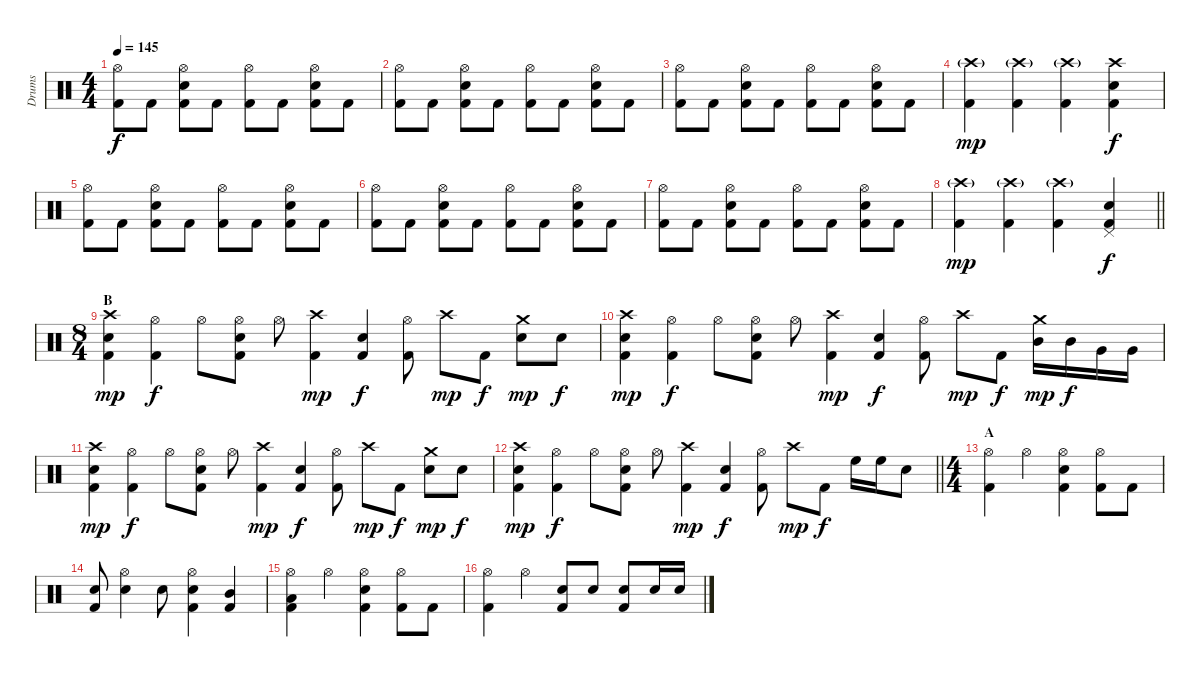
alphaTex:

\track ("Drums" "Drums") {instrument percussion}
\staff {score}
\articulation defaults
\ts (4 4)
\tempo 145
\clef neutral
\ks c
("Hi-Hat (open)" "Kick (hit) 2").8{dy f} "Kick (hit) 2".8 ("Snare (hit) 2" "Hi-Hat (open)" "Kick (hit) 2").8 "Kick (hit) 2".8 ("Hi-Hat (open)" "Kick (hit) 2").8 "Kick (hit) 2".8 ("Snare (hit) 2" "Hi-Hat (open)" "Kick (hit) 2").8 "Kick (hit) 2".8 |
("Hi-Hat (open)" "Kick (hit) 2").8 "Kick (hit) 2".8 ("Snare (hit) 2" "Hi-Hat (open)" "Kick (hit) 2").8 "Kick (hit) 2".8 ("Hi-Hat (open)" "Kick (hit) 2").8 "Kick (hit) 2".8 ("Snare (hit) 2" "Hi-Hat (open)" "Kick (hit) 2").8 "Kick (hit) 2".8 |
("Hi-Hat (open)" "Kick (hit) 2").8 "Kick (hit) 2".8 ("Snare (hit) 2" "Hi-Hat (open)" "Kick (hit) 2").8 "Kick (hit) 2".8 ("Hi-Hat (open)" "Kick (hit) 2").8 "Kick (hit) 2".8 ("Snare (hit) 2" "Hi-Hat (open)" "Kick (hit) 2").8 "Kick (hit) 2".8 |
("Crash high (hit)"{g} "Kick (hit) 2").4{dy mp} ("Crash high (hit)"{g} "Kick (hit) 2").4 ("Crash high (hit)"{g} "Kick (hit) 2").4 ("Snare (hit) 2" "Crash high (hit)" "Kick (hit) 2").4{dy f} |
("Hi-Hat (open)" "Kick (hit) 2").8 "Kick (hit) 2".8 ("Snare (hit) 2" "Hi-Hat (open)" "Kick (hit) 2").8 "Kick (hit) 2".8 ("Hi-Hat (open)" "Kick (hit) 2").8 "Kick (hit) 2".8 ("Snare (hit) 2" "Hi-Hat (open)" "Kick (hit) 2").8 "Kick (hit) 2".8 |
("Hi-Hat (open)" "Kick (hit) 2").8 "Kick (hit) 2".8 ("Snare (hit) 2" "Hi-Hat (open)" "Kick (hit) 2").8 "Kick (hit) 2".8 ("Hi-Hat (open)" "Kick (hit) 2").8 "Kick (hit) 2".8 ("Snare (hit) 2" "Hi-Hat (open)" "Kick (hit) 2").8 "Kick (hit) 2".8 |
("Hi-Hat (open)" "Kick (hit) 2").8 "Kick (hit) 2".8 ("Snare (hit) 2" "Hi-Hat (open)" "Kick (hit) 2").8 "Kick (hit) 2".8 ("Hi-Hat (open)" "Kick (hit) 2").8 "Kick (hit) 2".8 ("Snare (hit) 2" "Hi-Hat (open)" "Kick (hit) 2").8 "Kick (hit) 2".8 |
\barLineRight lightlight
("Crash high (hit)"{g} "Kick (hit) 2").4{dy mp} ("Crash high (hit)"{g} "Kick (hit) 2").4 ("Crash high (hit)"{g} "Kick (hit) 2").4 ("Snare (hit) 2" "Pedal Hi-Hat (hit)" "Kick (hit) 2").4{dy f} |
\ts (8 4)
\section ("" "B")
("Snare (hit) 2" "Crash high (hit)" "Kick (hit) 2").4{dy mp} ("Hi-Hat (open)" "Kick (hit) 2").4{dy f} "Hi-Hat (open)".8 ("Snare (hit) 2" "Hi-Hat (open)" "Kick (hit) 2").8 "Hi-Hat (open)".8 ("Crash high (hit)" "Kick (hit) 2").4{dy mp} ("Snare (hit) 2" "Kick (hit) 2").4{dy f} ("Hi-Hat (open)" "Kick (hit) 2").8 "Crash high (hit)".8{dy mp} "Kick (hit) 2".8{dy f} ("Snare (hit) 2" "Crash medium (hit)").8{dy mp} "Snare (hit) 2".8{dy f} |
("Snare (hit) 2" "Crash high (hit)" "Kick (hit) 2").4{dy mp} ("Hi-Hat (open)" "Kick (hit) 2").4{dy f} "Hi-Hat (open)".8 ("Snare (hit) 2" "Hi-Hat (open)" "Kick (hit) 2").8 "Hi-Hat (open)".8 ("Crash high (hit)" "Kick (hit) 2").4{dy mp} ("Snare (hit) 2" "Kick (hit) 2").4{dy f} ("Hi-Hat (open)" "Kick (hit) 2").8 "Crash high (hit)".8{dy mp} "Kick (hit) 2".8{dy f} ("Mid Tom (hit)" "Crash medium (hit)").16{dy mp} "Mid Tom (hit)".16{dy f} "Very Low Tom (hit)".16 "Very Low Tom (hit)".16 |
("Snare (hit) 2" "Crash high (hit)" "Kick (hit) 2").4{dy mp} ("Hi-Hat (open)" "Kick (hit) 2").4{dy f} "Hi-Hat (open)".8 ("Snare (hit) 2" "Hi-Hat (open)" "Kick (hit) 2").8 "Hi-Hat (open)".8 ("Crash high (hit)" "Kick (hit) 2").4{dy mp} ("Snare (hit) 2" "Kick (hit) 2").4{dy f} ("Hi-Hat (open)" "Kick (hit) 2").8 "Crash high (hit)".8{dy mp} "Kick (hit) 2".8{dy f} ("Snare (hit) 2" "Crash medium (hit)").8{dy mp} "Snare (hit) 2".8{dy f} |
\barLineRight lightlight
("Snare (hit) 2" "Crash high (hit)" "Kick (hit) 2").4{dy mp} ("Hi-Hat (open)" "Kick (hit) 2").4{dy f} "Hi-Hat (open)".8 ("Snare (hit) 2" "Hi-Hat (open)" "Kick (hit) 2").8 "Hi-Hat (open)".8 ("Crash high (hit)" "Kick (hit) 2").4{dy mp} ("Snare (hit) 2" "Kick (hit) 2").4{dy f} ("Hi-Hat (open)" "Kick (hit) 2").8 "Crash high (hit)".8{dy mp} "Kick (hit) 2".8{dy f} "High Floor Tom (hit)".16 "High Floor Tom (hit)".16 "Snare (hit) 2".8 |
\ts (4 4)
\section ("" "A")
("Hi-Hat (open)" "Kick (hit) 2").4 "Hi-Hat (open)".4 ("Snare (hit) 2" "Hi-Hat (open)" "Kick (hit) 2").4 ("Hi-Hat (open)" "Kick (hit) 2").8 "Kick (hit) 2".8 |
("Snare (hit) 2" "Kick (hit) 2").8 ("Snare (hit) 2" "Hi-Hat (open)").4 "Snare (hit) 2".8 ("Snare (hit) 2" "Hi-Hat (open)" "Kick (hit) 2").4 ("Mid Tom (hit)" "Kick (hit) 2").4 |
("Low Tom (hit)" "Hi-Hat (open)" "Kick (hit) 2").4 "Hi-Hat (open)".4 ("Snare (hit) 2" "Hi-Hat (open)" "Kick (hit) 2").4 ("Hi-Hat (open)" "Kick (hit) 2").8 "Kick (hit) 2".8 |
("Hi-Hat (open)" "Kick (hit) 2").4 "Hi-Hat (open)".4 ("Snare (hit) 2" "Kick (hit) 2").8 "Snare (hit) 2".8 ("Snare (hit) 2" "Kick (hit) 2").8 "Snare (hit) 2".16 "Snare (hit) 2".16
